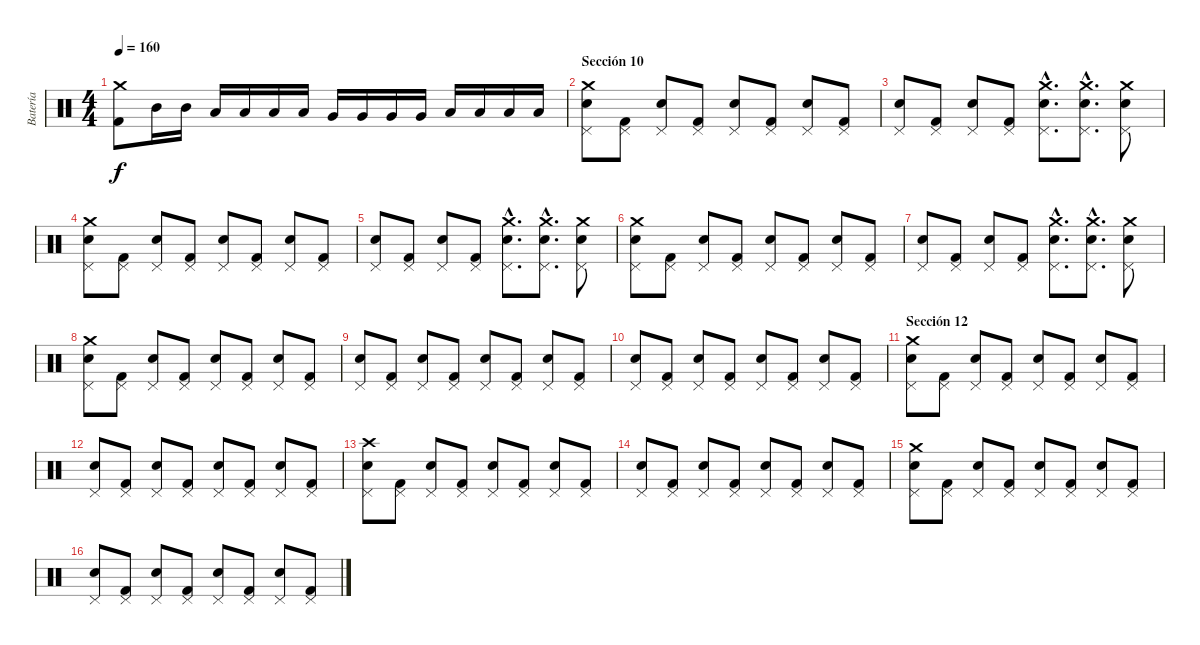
\track ("Batería" "Batería") {instrument percussion}
\staff {score}
\articulation defaults
\ts (4 4)
\tempo 160
\clef neutral
\ks c
("Crash medium (hit)" "Kick (hit) 2").8{dy f} "Mid Tom (hit)".16 "Mid Tom (hit)".16 "Low Tom (hit)".16 "Low Tom (hit)".16 "Low Tom (hit)".16 "Low Tom (hit)".16 "Very Low Tom (hit)".16 "Very Low Tom (hit)".16 "Very Low Tom (hit)".16 "Very Low Tom (hit)".16 "Low Floor Tom (hit)".16 "Low Floor Tom (hit)".16 "Low Floor Tom (hit)".16 "Low Floor Tom (hit)".16 |
\section ("" "Sección 10")
("Pedal Hi-Hat (hit)" "Crash medium (hit)" "Electric Snare (hit)").8 ("Pedal Hi-Hat (hit)" "Kick (hit) 2").8 ("Pedal Hi-Hat (hit)" "Electric Snare (hit)").8 ("Pedal Hi-Hat (hit)" "Kick (hit) 2").8 ("Pedal Hi-Hat (hit)" "Electric Snare (hit)").8 ("Pedal Hi-Hat (hit)" "Kick (hit) 2").8 ("Pedal Hi-Hat (hit)" "Electric Snare (hit)").8 ("Pedal Hi-Hat (hit)" "Kick (hit) 2").8 |
("Pedal Hi-Hat (hit)" "Electric Snare (hit)").8 ("Pedal Hi-Hat (hit)" "Kick (hit) 2").8 ("Pedal Hi-Hat (hit)" "Electric Snare (hit)").8 ("Pedal Hi-Hat (hit)" "Kick (hit) 2").8 ("Pedal Hi-Hat (hit)"{hac} "Crash medium (hit)"{hac} "Electric Snare (hit)"{hac}).8{d} ("Pedal Hi-Hat (hit)"{hac} "Crash medium (hit)"{hac} "Electric Snare (hit)"{hac}).8{d} ("Pedal Hi-Hat (hit)" "Crash medium (hit)" "Electric Snare (hit)").8 |
("Pedal Hi-Hat (hit)" "Crash medium (hit)" "Electric Snare (hit)").8 ("Pedal Hi-Hat (hit)" "Kick (hit) 2").8 ("Pedal Hi-Hat (hit)" "Electric Snare (hit)").8 ("Pedal Hi-Hat (hit)" "Kick (hit) 2").8 ("Pedal Hi-Hat (hit)" "Electric Snare (hit)").8 ("Pedal Hi-Hat (hit)" "Kick (hit) 2").8 ("Pedal Hi-Hat (hit)" "Electric Snare (hit)").8 ("Pedal Hi-Hat (hit)" "Kick (hit) 2").8 |
("Pedal Hi-Hat (hit)" "Electric Snare (hit)").8 ("Pedal Hi-Hat (hit)" "Kick (hit) 2").8 ("Pedal Hi-Hat (hit)" "Electric Snare (hit)").8 ("Pedal Hi-Hat (hit)" "Kick (hit) 2").8 ("Pedal Hi-Hat (hit)"{hac} "Crash medium (hit)"{hac} "Electric Snare (hit)"{hac}).8{d} ("Pedal Hi-Hat (hit)"{hac} "Crash medium (hit)"{hac} "Electric Snare (hit)"{hac}).8{d} ("Pedal Hi-Hat (hit)" "Crash medium (hit)" "Electric Snare (hit)").8 |
("Pedal Hi-Hat (hit)" "Crash medium (hit)" "Electric Snare (hit)").8 ("Pedal Hi-Hat (hit)" "Kick (hit) 2").8 ("Pedal Hi-Hat (hit)" "Electric Snare (hit)").8 ("Pedal Hi-Hat (hit)" "Kick (hit) 2").8 ("Pedal Hi-Hat (hit)" "Electric Snare (hit)").8 ("Pedal Hi-Hat (hit)" "Kick (hit) 2").8 ("Pedal Hi-Hat (hit)" "Electric Snare (hit)").8 ("Pedal Hi-Hat (hit)" "Kick (hit) 2").8 |
("Pedal Hi-Hat (hit)" "Electric Snare (hit)").8 ("Pedal Hi-Hat (hit)" "Kick (hit) 2").8 ("Pedal Hi-Hat (hit)" "Electric Snare (hit)").8 ("Pedal Hi-Hat (hit)" "Kick (hit) 2").8 ("Pedal Hi-Hat (hit)"{hac} "Crash medium (hit)"{hac} "Electric Snare (hit)"{hac}).8{d} ("Pedal Hi-Hat (hit)"{hac} "Crash medium (hit)"{hac} "Electric Snare (hit)"{hac}).8{d} ("Pedal Hi-Hat (hit)" "Crash medium (hit)" "Electric Snare (hit)").8 |
("Pedal Hi-Hat (hit)" "Crash medium (hit)" "Electric Snare (hit)").8 ("Pedal Hi-Hat (hit)" "Kick (hit) 2").8 ("Pedal Hi-Hat (hit)" "Electric Snare (hit)").8 ("Pedal Hi-Hat (hit)" "Kick (hit) 2").8 ("Pedal Hi-Hat (hit)" "Electric Snare (hit)").8 ("Pedal Hi-Hat (hit)" "Kick (hit) 2").8 ("Pedal Hi-Hat (hit)" "Electric Snare (hit)").8 ("Pedal Hi-Hat (hit)" "Kick (hit) 2").8 |
("Pedal Hi-Hat (hit)" "Electric Snare (hit)").8 ("Pedal Hi-Hat (hit)" "Kick (hit) 2").8 ("Pedal Hi-Hat (hit)" "Electric Snare (hit)").8 ("Pedal Hi-Hat (hit)" "Kick (hit) 2").8 ("Pedal Hi-Hat (hit)" "Electric Snare (hit)").8 ("Pedal Hi-Hat (hit)" "Kick (hit) 2").8 ("Pedal Hi-Hat (hit)" "Electric Snare (hit)").8 ("Pedal Hi-Hat (hit)" "Kick (hit) 2").8 |
("Pedal Hi-Hat (hit)" "Electric Snare (hit)").8 ("Pedal Hi-Hat (hit)" "Kick (hit) 2").8 ("Pedal Hi-Hat (hit)" "Electric Snare (hit)").8 ("Pedal Hi-Hat (hit)" "Kick (hit) 2").8 ("Pedal Hi-Hat (hit)" "Electric Snare (hit)").8 ("Pedal Hi-Hat (hit)" "Kick (hit) 2").8 ("Pedal Hi-Hat (hit)" "Electric Snare (hit)").8 ("Pedal Hi-Hat (hit)" "Kick (hit) 2").8 |
\section ("" "Sección 12")
("Pedal Hi-Hat (hit)" "Crash medium (hit)" "Electric Snare (hit)").8 ("Pedal Hi-Hat (hit)" "Kick (hit) 2").8 ("Pedal Hi-Hat (hit)" "Electric Snare (hit)").8 ("Pedal Hi-Hat (hit)" "Kick (hit) 2").8 ("Pedal Hi-Hat (hit)" "Electric Snare (hit)").8 ("Pedal Hi-Hat (hit)" "Kick (hit) 2").8 ("Pedal Hi-Hat (hit)" "Electric Snare (hit)").8 ("Pedal Hi-Hat (hit)" "Kick (hit) 2").8 |
("Pedal Hi-Hat (hit)" "Electric Snare (hit)").8 ("Pedal Hi-Hat (hit)" "Kick (hit) 2").8 ("Pedal Hi-Hat (hit)" "Electric Snare (hit)").8 ("Pedal Hi-Hat (hit)" "Kick (hit) 2").8 ("Pedal Hi-Hat (hit)" "Electric Snare (hit)").8 ("Pedal Hi-Hat (hit)" "Kick (hit) 2").8 ("Pedal Hi-Hat (hit)" "Electric Snare (hit)").8 ("Pedal Hi-Hat (hit)" "Kick (hit) 2").8 |
("Pedal Hi-Hat (hit)" "Crash high (hit)" "Electric Snare (hit)").8 ("Pedal Hi-Hat (hit)" "Kick (hit) 2").8 ("Pedal Hi-Hat (hit)" "Electric Snare (hit)").8 ("Pedal Hi-Hat (hit)" "Kick (hit) 2").8 ("Pedal Hi-Hat (hit)" "Electric Snare (hit)").8 ("Pedal Hi-Hat (hit)" "Kick (hit) 2").8 ("Pedal Hi-Hat (hit)" "Electric Snare (hit)").8 ("Pedal Hi-Hat (hit)" "Kick (hit) 2").8 |
("Pedal Hi-Hat (hit)" "Electric Snare (hit)").8 ("Pedal Hi-Hat (hit)" "Kick (hit) 2").8 ("Pedal Hi-Hat (hit)" "Electric Snare (hit)").8 ("Pedal Hi-Hat (hit)" "Kick (hit) 2").8 ("Pedal Hi-Hat (hit)" "Electric Snare (hit)").8 ("Pedal Hi-Hat (hit)" "Kick (hit) 2").8 ("Pedal Hi-Hat (hit)" "Electric Snare (hit)").8 ("Pedal Hi-Hat (hit)" "Kick (hit) 2").8 |
("Pedal Hi-Hat (hit)" "Crash medium (hit)" "Electric Snare (hit)").8 ("Pedal Hi-Hat (hit)" "Kick (hit) 2").8 ("Pedal Hi-Hat (hit)" "Electric Snare (hit)").8 ("Pedal Hi-Hat (hit)" "Kick (hit) 2").8 ("Pedal Hi-Hat (hit)" "Electric Snare (hit)").8 ("Pedal Hi-Hat (hit)" "Kick (hit) 2").8 ("Pedal Hi-Hat (hit)" "Electric Snare (hit)").8 ("Pedal Hi-Hat (hit)" "Kick (hit) 2").8 |
("Pedal Hi-Hat (hit)" "Electric Snare (hit)").8 ("Pedal Hi-Hat (hit)" "Kick (hit) 2").8 ("Pedal Hi-Hat (hit)" "Electric Snare (hit)").8 ("Pedal Hi-Hat (hit)" "Kick (hit) 2").8 ("Pedal Hi-Hat (hit)" "Electric Snare (hit)").8 ("Pedal Hi-Hat (hit)" "Kick (hit) 2").8 ("Pedal Hi-Hat (hit)" "Electric Snare (hit)").8 ("Pedal Hi-Hat (hit)" "Kick (hit) 2").8
